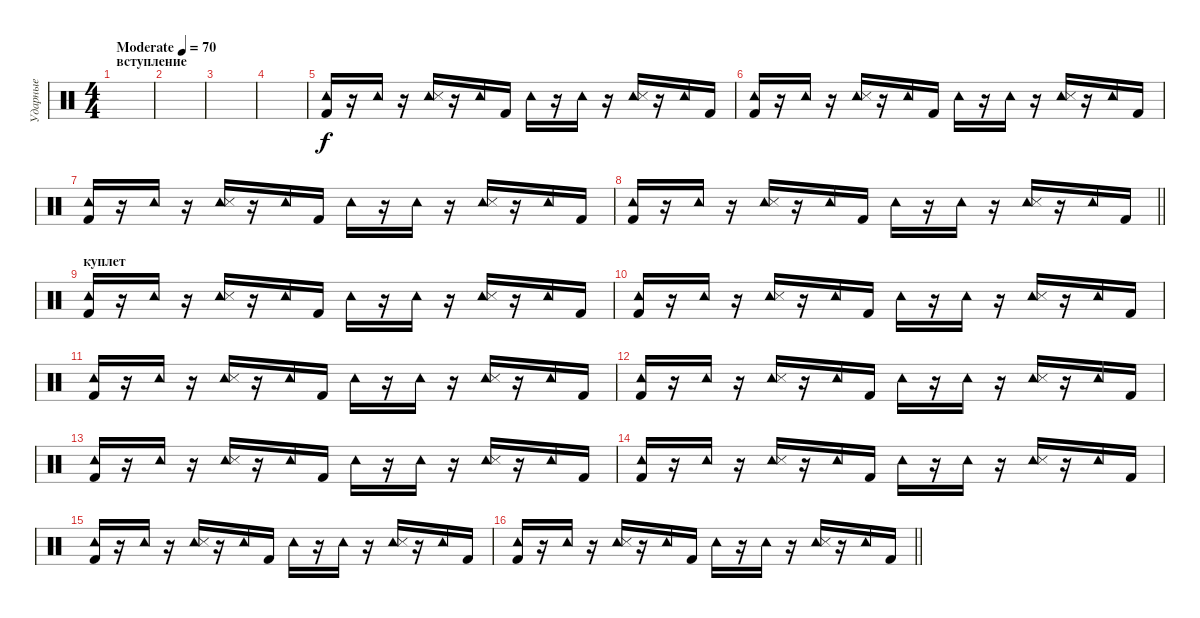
\track ("Ударные" "Ударные") {instrument percussion}
\staff {score}
\articulation defaults
\ts (4 4)
\section ("" "вступление")
\tempo (70 "Moderate")
\clef neutral
\ks c
|
|
|
|
("Tambourine (hit)" "Kick (hit) 2").16 r.16 "Tambourine (hit)".16 r.16 ("Tambourine (hit)" "Snare (side stick) 3").16 r.16 "Tambourine (hit)".16 "Kick (hit) 2".16 "Tambourine (hit)".16 r.16 "Tambourine (hit)".16 r.16 ("Tambourine (hit)" "Snare (side stick) 3").16 r.16 "Tambourine (hit)".16 "Kick (hit) 2".16 |
("Tambourine (hit)" "Kick (hit) 2").16 r.16 "Tambourine (hit)".16 r.16 ("Tambourine (hit)" "Snare (side stick) 3").16 r.16 "Tambourine (hit)".16 "Kick (hit) 2".16 "Tambourine (hit)".16 r.16 "Tambourine (hit)".16 r.16 ("Tambourine (hit)" "Snare (side stick) 3").16 r.16 "Tambourine (hit)".16 "Kick (hit) 2".16 |
("Tambourine (hit)" "Kick (hit) 2").16 r.16 "Tambourine (hit)".16 r.16 ("Tambourine (hit)" "Snare (side stick) 3").16 r.16 "Tambourine (hit)".16 "Kick (hit) 2".16 "Tambourine (hit)".16 r.16 "Tambourine (hit)".16 r.16 ("Tambourine (hit)" "Snare (side stick) 3").16 r.16 "Tambourine (hit)".16 "Kick (hit) 2".16 |
\barLineRight lightlight
("Tambourine (hit)" "Kick (hit) 2").16 r.16 "Tambourine (hit)".16 r.16 ("Tambourine (hit)" "Snare (side stick) 3").16 r.16 "Tambourine (hit)".16 "Kick (hit) 2".16 "Tambourine (hit)".16 r.16 "Tambourine (hit)".16 r.16 ("Tambourine (hit)" "Snare (side stick) 3").16 r.16 "Tambourine (hit)".16 "Kick (hit) 2".16 |
\section ("" "куплет")
("Tambourine (hit)" "Kick (hit) 2").16 r.16 "Tambourine (hit)".16 r.16 ("Tambourine (hit)" "Snare (side stick) 3").16 r.16 "Tambourine (hit)".16 "Kick (hit) 2".16 "Tambourine (hit)".16 r.16 "Tambourine (hit)".16 r.16 ("Tambourine (hit)" "Snare (side stick) 3").16 r.16 "Tambourine (hit)".16 "Kick (hit) 2".16 |
("Tambourine (hit)" "Kick (hit) 2").16 r.16 "Tambourine (hit)".16 r.16 ("Tambourine (hit)" "Snare (side stick) 3").16 r.16 "Tambourine (hit)".16 "Kick (hit) 2".16 "Tambourine (hit)".16 r.16 "Tambourine (hit)".16 r.16 ("Tambourine (hit)" "Snare (side stick) 3").16 r.16 "Tambourine (hit)".16 "Kick (hit) 2".16 |
("Tambourine (hit)" "Kick (hit) 2").16 r.16 "Tambourine (hit)".16 r.16 ("Tambourine (hit)" "Snare (side stick) 3").16 r.16 "Tambourine (hit)".16 "Kick (hit) 2".16 "Tambourine (hit)".16 r.16 "Tambourine (hit)".16 r.16 ("Tambourine (hit)" "Snare (side stick) 3").16 r.16 "Tambourine (hit)".16 "Kick (hit) 2".16 |
("Tambourine (hit)" "Kick (hit) 2").16 r.16 "Tambourine (hit)".16 r.16 ("Tambourine (hit)" "Snare (side stick) 3").16 r.16 "Tambourine (hit)".16 "Kick (hit) 2".16 "Tambourine (hit)".16 r.16 "Tambourine (hit)".16 r.16 ("Tambourine (hit)" "Snare (side stick) 3").16 r.16 "Tambourine (hit)".16 "Kick (hit) 2".16 |
("Tambourine (hit)" "Kick (hit) 2").16 r.16 "Tambourine (hit)".16 r.16 ("Tambourine (hit)" "Snare (side stick) 3").16 r.16 "Tambourine (hit)".16 "Kick (hit) 2".16 "Tambourine (hit)".16 r.16 "Tambourine (hit)".16 r.16 ("Tambourine (hit)" "Snare (side stick) 3").16 r.16 "Tambourine (hit)".16 "Kick (hit) 2".16 |
("Tambourine (hit)" "Kick (hit) 2").16 r.16 "Tambourine (hit)".16 r.16 ("Tambourine (hit)" "Snare (side stick) 3").16 r.16 "Tambourine (hit)".16 "Kick (hit) 2".16 "Tambourine (hit)".16 r.16 "Tambourine (hit)".16 r.16 ("Tambourine (hit)" "Snare (side stick) 3").16 r.16 "Tambourine (hit)".16 "Kick (hit) 2".16 |
("Tambourine (hit)" "Kick (hit) 2").16 r.16 "Tambourine (hit)".16 r.16 ("Tambourine (hit)" "Snare (side stick) 3").16 r.16 "Tambourine (hit)".16 "Kick (hit) 2".16 "Tambourine (hit)".16 r.16 "Tambourine (hit)".16 r.16 ("Tambourine (hit)" "Snare (side stick) 3").16 r.16 "Tambourine (hit)".16 "Kick (hit) 2".16 |
\barLineRight lightlight
("Tambourine (hit)" "Kick (hit) 2").16 r.16 "Tambourine (hit)".16 r.16 ("Tambourine (hit)" "Snare (side stick) 3").16 r.16 "Tambourine (hit)".16 "Kick (hit) 2".16 "Tambourine (hit)".16 r.16 "Tambourine (hit)".16 r.16 ("Tambourine (hit)" "Snare (side stick) 3").16 r.16 "Tambourine (hit)".16 "Kick (hit) 2".16
